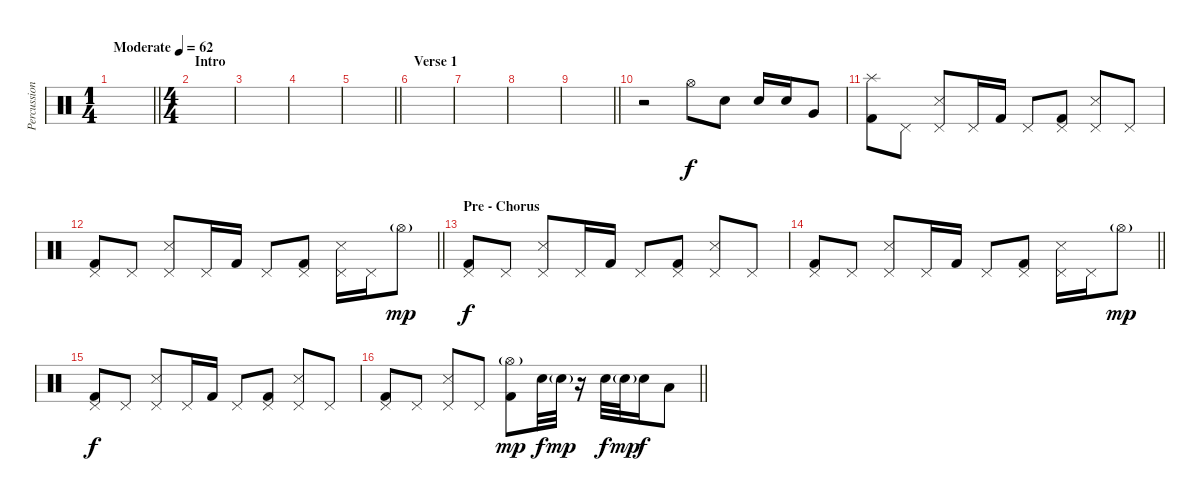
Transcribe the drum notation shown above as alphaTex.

\track ("Percussion" "Percussion") {instrument percussion}
\staff {score}
\articulation defaults
\ts (1 4)
\tempo (62 "Moderate")
\clef neutral
\barLineRight lightlight
\ks c
|
\ts (4 4)
\section ("" "Intro")
|
|
|
\barLineRight lightlight
|
\section ("" "Verse 1")
|
|
|
\barLineRight lightlight
|
r.2 "Hi-Hat (open)".8 "Electric Snare (hit)".8 "Electric Snare (hit)".16 "Electric Snare (hit)".16 "Very Low Tom (hit)".8 |
("Splash (hit)" "Kick (hit) 2").8 "Pedal Hi-Hat (hit)".8 ("Pedal Hi-Hat (hit)" "Snare (side stick) 3").8 "Pedal Hi-Hat (hit)".16 "Kick (hit) 2".16 "Pedal Hi-Hat (hit)".8 ("Pedal Hi-Hat (hit)" "Kick (hit) 2").8 ("Pedal Hi-Hat (hit)" "Snare (side stick) 3").8 "Pedal Hi-Hat (hit)".8 |
\barLineRight lightlight
("Pedal Hi-Hat (hit)" "Kick (hit) 2").8 "Pedal Hi-Hat (hit)".8 ("Pedal Hi-Hat (hit)" "Snare (side stick) 3").8 "Pedal Hi-Hat (hit)".16 "Kick (hit) 2".16 "Pedal Hi-Hat (hit)".8 ("Pedal Hi-Hat (hit)" "Kick (hit) 2").8 ("Pedal Hi-Hat (hit)" "Snare (side stick) 3").16 "Pedal Hi-Hat (hit)".16 "Hi-Hat (open)"{g}.8{dy mp} |
\section ("" "Pre - Chorus")
("Pedal Hi-Hat (hit)" "Kick (hit) 2").8{dy f} "Pedal Hi-Hat (hit)".8 ("Pedal Hi-Hat (hit)" "Snare (side stick) 3").8 "Pedal Hi-Hat (hit)".16 "Kick (hit) 2".16 "Pedal Hi-Hat (hit)".8 ("Pedal Hi-Hat (hit)" "Kick (hit) 2").8 ("Pedal Hi-Hat (hit)" "Snare (side stick) 3").8 "Pedal Hi-Hat (hit)".8 |
\barLineRight lightlight
("Pedal Hi-Hat (hit)" "Kick (hit) 2").8 "Pedal Hi-Hat (hit)".8 ("Pedal Hi-Hat (hit)" "Snare (side stick) 3").8 "Pedal Hi-Hat (hit)".16 "Kick (hit) 2".16 "Pedal Hi-Hat (hit)".8 ("Pedal Hi-Hat (hit)" "Kick (hit) 2").8 ("Pedal Hi-Hat (hit)" "Snare (side stick) 3").16 "Pedal Hi-Hat (hit)".16 "Hi-Hat (open)"{g}.8{dy mp} |
("Pedal Hi-Hat (hit)" "Kick (hit) 2").8{dy f} "Pedal Hi-Hat (hit)".8 ("Pedal Hi-Hat (hit)" "Snare (side stick) 3").8 "Pedal Hi-Hat (hit)".16 "Kick (hit) 2".16 "Pedal Hi-Hat (hit)".8 ("Pedal Hi-Hat (hit)" "Kick (hit) 2").8 ("Pedal Hi-Hat (hit)" "Snare (side stick) 3").8 "Pedal Hi-Hat (hit)".8 |
\barLineRight lightlight
("Pedal Hi-Hat (hit)" "Kick (hit) 2").8 "Pedal Hi-Hat (hit)".8 ("Pedal Hi-Hat (hit)" "Snare (side stick) 3").8 "Pedal Hi-Hat (hit)".8 ("Hi-Hat (open)"{g} "Kick (hit) 2").8{dy mp} "Electric Snare (hit)".32{dy f} "Electric Snare (hit)"{g}.32{dy mp} r.16 "Electric Snare (hit)".32{dy f} "Electric Snare (hit)"{g}.32{dy mp} "Electric Snare (hit)".16{dy f} "Low Tom (hit)".8
